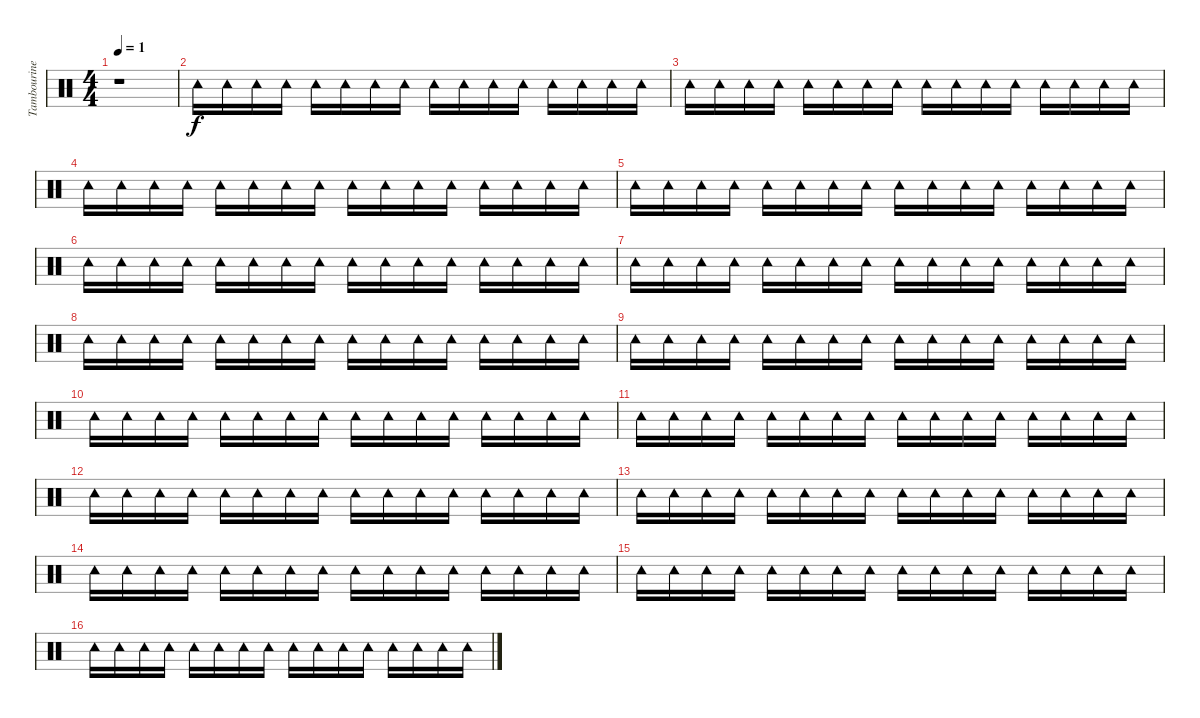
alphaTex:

\track ("Tambourine" "Tambourine") {instrument percussion}
\staff {score}
\articulation defaults
\ts (4 4)
\tempo 1
\clef neutral
\ks c
r.1{dy f} |
"Tambourine (hit)".16 "Tambourine (hit)".16 "Tambourine (hit)".16 "Tambourine (hit)".16 "Tambourine (hit)".16 "Tambourine (hit)".16 "Tambourine (hit)".16 "Tambourine (hit)".16 "Tambourine (hit)".16 "Tambourine (hit)".16 "Tambourine (hit)".16 "Tambourine (hit)".16 "Tambourine (hit)".16 "Tambourine (hit)".16 "Tambourine (hit)".16 "Tambourine (hit)".16 |
"Tambourine (hit)".16 "Tambourine (hit)".16 "Tambourine (hit)".16 "Tambourine (hit)".16 "Tambourine (hit)".16 "Tambourine (hit)".16 "Tambourine (hit)".16 "Tambourine (hit)".16 "Tambourine (hit)".16 "Tambourine (hit)".16 "Tambourine (hit)".16 "Tambourine (hit)".16 "Tambourine (hit)".16 "Tambourine (hit)".16 "Tambourine (hit)".16 "Tambourine (hit)".16 |
"Tambourine (hit)".16 "Tambourine (hit)".16 "Tambourine (hit)".16 "Tambourine (hit)".16 "Tambourine (hit)".16 "Tambourine (hit)".16 "Tambourine (hit)".16 "Tambourine (hit)".16 "Tambourine (hit)".16 "Tambourine (hit)".16 "Tambourine (hit)".16 "Tambourine (hit)".16 "Tambourine (hit)".16 "Tambourine (hit)".16 "Tambourine (hit)".16 "Tambourine (hit)".16 |
"Tambourine (hit)".16 "Tambourine (hit)".16 "Tambourine (hit)".16 "Tambourine (hit)".16 "Tambourine (hit)".16 "Tambourine (hit)".16 "Tambourine (hit)".16 "Tambourine (hit)".16 "Tambourine (hit)".16 "Tambourine (hit)".16 "Tambourine (hit)".16 "Tambourine (hit)".16 "Tambourine (hit)".16 "Tambourine (hit)".16 "Tambourine (hit)".16 "Tambourine (hit)".16 |
"Tambourine (hit)".16 "Tambourine (hit)".16 "Tambourine (hit)".16 "Tambourine (hit)".16 "Tambourine (hit)".16 "Tambourine (hit)".16 "Tambourine (hit)".16 "Tambourine (hit)".16 "Tambourine (hit)".16 "Tambourine (hit)".16 "Tambourine (hit)".16 "Tambourine (hit)".16 "Tambourine (hit)".16 "Tambourine (hit)".16 "Tambourine (hit)".16 "Tambourine (hit)".16 |
"Tambourine (hit)".16 "Tambourine (hit)".16 "Tambourine (hit)".16 "Tambourine (hit)".16 "Tambourine (hit)".16 "Tambourine (hit)".16 "Tambourine (hit)".16 "Tambourine (hit)".16 "Tambourine (hit)".16 "Tambourine (hit)".16 "Tambourine (hit)".16 "Tambourine (hit)".16 "Tambourine (hit)".16 "Tambourine (hit)".16 "Tambourine (hit)".16 "Tambourine (hit)".16 |
"Tambourine (hit)".16 "Tambourine (hit)".16 "Tambourine (hit)".16 "Tambourine (hit)".16 "Tambourine (hit)".16 "Tambourine (hit)".16 "Tambourine (hit)".16 "Tambourine (hit)".16 "Tambourine (hit)".16 "Tambourine (hit)".16 "Tambourine (hit)".16 "Tambourine (hit)".16 "Tambourine (hit)".16 "Tambourine (hit)".16 "Tambourine (hit)".16 "Tambourine (hit)".16 |
"Tambourine (hit)".16 "Tambourine (hit)".16 "Tambourine (hit)".16 "Tambourine (hit)".16 "Tambourine (hit)".16 "Tambourine (hit)".16 "Tambourine (hit)".16 "Tambourine (hit)".16 "Tambourine (hit)".16 "Tambourine (hit)".16 "Tambourine (hit)".16 "Tambourine (hit)".16 "Tambourine (hit)".16 "Tambourine (hit)".16 "Tambourine (hit)".16 "Tambourine (hit)".16 |
"Tambourine (hit)".16 "Tambourine (hit)".16 "Tambourine (hit)".16 "Tambourine (hit)".16 "Tambourine (hit)".16 "Tambourine (hit)".16 "Tambourine (hit)".16 "Tambourine (hit)".16 "Tambourine (hit)".16 "Tambourine (hit)".16 "Tambourine (hit)".16 "Tambourine (hit)".16 "Tambourine (hit)".16 "Tambourine (hit)".16 "Tambourine (hit)".16 "Tambourine (hit)".16 |
"Tambourine (hit)".16 "Tambourine (hit)".16 "Tambourine (hit)".16 "Tambourine (hit)".16 "Tambourine (hit)".16 "Tambourine (hit)".16 "Tambourine (hit)".16 "Tambourine (hit)".16 "Tambourine (hit)".16 "Tambourine (hit)".16 "Tambourine (hit)".16 "Tambourine (hit)".16 "Tambourine (hit)".16 "Tambourine (hit)".16 "Tambourine (hit)".16 "Tambourine (hit)".16 |
"Tambourine (hit)".16 "Tambourine (hit)".16 "Tambourine (hit)".16 "Tambourine (hit)".16 "Tambourine (hit)".16 "Tambourine (hit)".16 "Tambourine (hit)".16 "Tambourine (hit)".16 "Tambourine (hit)".16 "Tambourine (hit)".16 "Tambourine (hit)".16 "Tambourine (hit)".16 "Tambourine (hit)".16 "Tambourine (hit)".16 "Tambourine (hit)".16 "Tambourine (hit)".16 |
"Tambourine (hit)".16 "Tambourine (hit)".16 "Tambourine (hit)".16 "Tambourine (hit)".16 "Tambourine (hit)".16 "Tambourine (hit)".16 "Tambourine (hit)".16 "Tambourine (hit)".16 "Tambourine (hit)".16 "Tambourine (hit)".16 "Tambourine (hit)".16 "Tambourine (hit)".16 "Tambourine (hit)".16 "Tambourine (hit)".16 "Tambourine (hit)".16 "Tambourine (hit)".16 |
"Tambourine (hit)".16 "Tambourine (hit)".16 "Tambourine (hit)".16 "Tambourine (hit)".16 "Tambourine (hit)".16 "Tambourine (hit)".16 "Tambourine (hit)".16 "Tambourine (hit)".16 "Tambourine (hit)".16 "Tambourine (hit)".16 "Tambourine (hit)".16 "Tambourine (hit)".16 "Tambourine (hit)".16 "Tambourine (hit)".16 "Tambourine (hit)".16 "Tambourine (hit)".16 |
"Tambourine (hit)".16 "Tambourine (hit)".16 "Tambourine (hit)".16 "Tambourine (hit)".16 "Tambourine (hit)".16 "Tambourine (hit)".16 "Tambourine (hit)".16 "Tambourine (hit)".16 "Tambourine (hit)".16 "Tambourine (hit)".16 "Tambourine (hit)".16 "Tambourine (hit)".16 "Tambourine (hit)".16 "Tambourine (hit)".16 "Tambourine (hit)".16 "Tambourine (hit)".16 |
"Tambourine (hit)".16 "Tambourine (hit)".16 "Tambourine (hit)".16 "Tambourine (hit)".16 "Tambourine (hit)".16 "Tambourine (hit)".16 "Tambourine (hit)".16 "Tambourine (hit)".16 "Tambourine (hit)".16 "Tambourine (hit)".16 "Tambourine (hit)".16 "Tambourine (hit)".16 "Tambourine (hit)".16 "Tambourine (hit)".16 "Tambourine (hit)".16 "Tambourine (hit)".16
